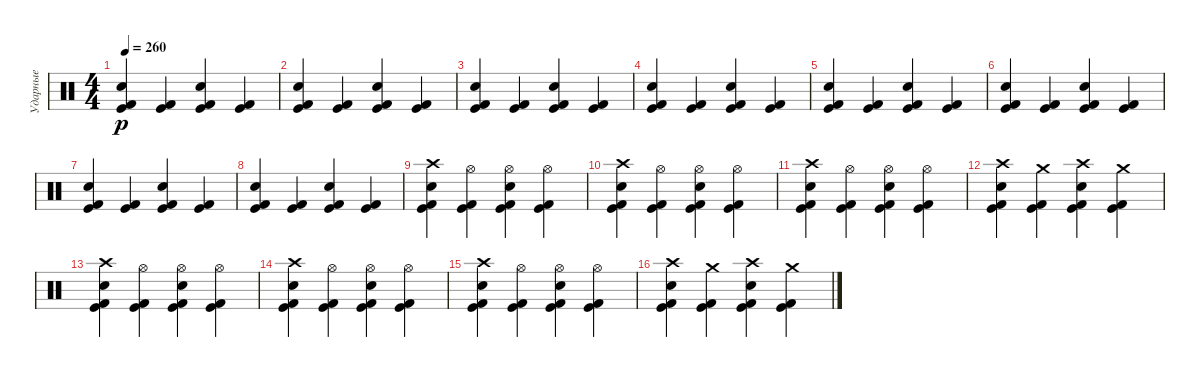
\track ("Ударные" "Ударные") {instrument percussion}
\staff {score}
\articulation defaults
\ts (4 4)
\tempo 260
\clef neutral
\ks c
("Kick (hit) 2" "Kick (hit)" "Snare (hit) 2").4{dy p} ("Kick (hit)" "Kick (hit) 2").4 ("Kick (hit) 2" "Kick (hit)" "Snare (hit) 2").4 ("Kick (hit)" "Kick (hit) 2").4 |
("Kick (hit) 2" "Kick (hit)" "Snare (hit) 2").4 ("Kick (hit)" "Kick (hit) 2").4 ("Kick (hit) 2" "Kick (hit)" "Snare (hit) 2").4 ("Kick (hit)" "Kick (hit) 2").4 |
("Kick (hit) 2" "Kick (hit)" "Snare (hit) 2").4 ("Kick (hit)" "Kick (hit) 2").4 ("Kick (hit) 2" "Kick (hit)" "Snare (hit) 2").4 ("Kick (hit)" "Kick (hit) 2").4 |
("Kick (hit) 2" "Kick (hit)" "Snare (hit) 2").4 ("Kick (hit)" "Kick (hit) 2").4 ("Kick (hit) 2" "Kick (hit)" "Snare (hit) 2").4 ("Kick (hit)" "Kick (hit) 2").4 |
("Kick (hit) 2" "Kick (hit)" "Snare (hit) 2").4 ("Kick (hit)" "Kick (hit) 2").4 ("Kick (hit) 2" "Kick (hit)" "Snare (hit) 2").4 ("Kick (hit)" "Kick (hit) 2").4 |
("Kick (hit) 2" "Kick (hit)" "Snare (hit) 2").4 ("Kick (hit)" "Kick (hit) 2").4 ("Kick (hit) 2" "Kick (hit)" "Snare (hit) 2").4 ("Kick (hit)" "Kick (hit) 2").4 |
("Kick (hit) 2" "Kick (hit)" "Snare (hit) 2").4 ("Kick (hit)" "Kick (hit) 2").4 ("Kick (hit) 2" "Kick (hit)" "Snare (hit) 2").4 ("Kick (hit)" "Kick (hit) 2").4 |
("Kick (hit) 2" "Kick (hit)" "Snare (hit) 2").4 ("Kick (hit)" "Kick (hit) 2").4 ("Kick (hit) 2" "Kick (hit)" "Snare (hit) 2").4 ("Kick (hit)" "Kick (hit) 2").4 |
("Kick (hit) 2" "Kick (hit)" "Snare (hit) 2" "Crash high (hit)").4 ("Kick (hit)" "Kick (hit) 2" "Hi-Hat (open)").4 ("Kick (hit) 2" "Kick (hit)" "Snare (hit) 2" "Hi-Hat (open)").4 ("Kick (hit)" "Kick (hit) 2" "Hi-Hat (open)").4 |
("Kick (hit) 2" "Kick (hit)" "Snare (hit) 2" "Crash high (hit)").4 ("Kick (hit)" "Kick (hit) 2" "Hi-Hat (open)").4 ("Kick (hit) 2" "Kick (hit)" "Snare (hit) 2" "Hi-Hat (open)").4 ("Kick (hit)" "Kick (hit) 2" "Hi-Hat (open)").4 |
("Kick (hit) 2" "Kick (hit)" "Snare (hit) 2" "Crash high (hit)").4 ("Kick (hit)" "Kick (hit) 2" "Hi-Hat (open)").4 ("Kick (hit) 2" "Kick (hit)" "Snare (hit) 2" "Hi-Hat (open)").4 ("Kick (hit)" "Kick (hit) 2" "Hi-Hat (open)").4 |
("Kick (hit) 2" "Kick (hit)" "Snare (hit) 2" "Crash high (hit)").4 ("Kick (hit)" "Kick (hit) 2" "Crash medium (hit)").4 ("Kick (hit) 2" "Kick (hit)" "Snare (hit) 2" "Crash high (hit)").4 ("Kick (hit)" "Kick (hit) 2" "Crash medium (hit)").4 |
("Kick (hit) 2" "Kick (hit)" "Snare (hit) 2" "Crash high (hit)").4 ("Kick (hit)" "Kick (hit) 2" "Hi-Hat (open)").4 ("Kick (hit) 2" "Kick (hit)" "Snare (hit) 2" "Hi-Hat (open)").4 ("Kick (hit)" "Kick (hit) 2" "Hi-Hat (open)").4 |
("Kick (hit) 2" "Kick (hit)" "Snare (hit) 2" "Crash high (hit)").4 ("Kick (hit)" "Kick (hit) 2" "Hi-Hat (open)").4 ("Kick (hit) 2" "Kick (hit)" "Snare (hit) 2" "Hi-Hat (open)").4 ("Kick (hit)" "Kick (hit) 2" "Hi-Hat (open)").4 |
("Kick (hit) 2" "Kick (hit)" "Snare (hit) 2" "Crash high (hit)").4 ("Kick (hit)" "Kick (hit) 2" "Hi-Hat (open)").4 ("Kick (hit) 2" "Kick (hit)" "Snare (hit) 2" "Hi-Hat (open)").4 ("Kick (hit)" "Kick (hit) 2" "Hi-Hat (open)").4 |
("Kick (hit) 2" "Kick (hit)" "Snare (hit) 2" "Crash high (hit)").4 ("Kick (hit)" "Kick (hit) 2" "Crash medium (hit)").4 ("Kick (hit) 2" "Kick (hit)" "Snare (hit) 2" "Crash high (hit)").4 ("Kick (hit)" "Kick (hit) 2" "Crash medium (hit)").4
